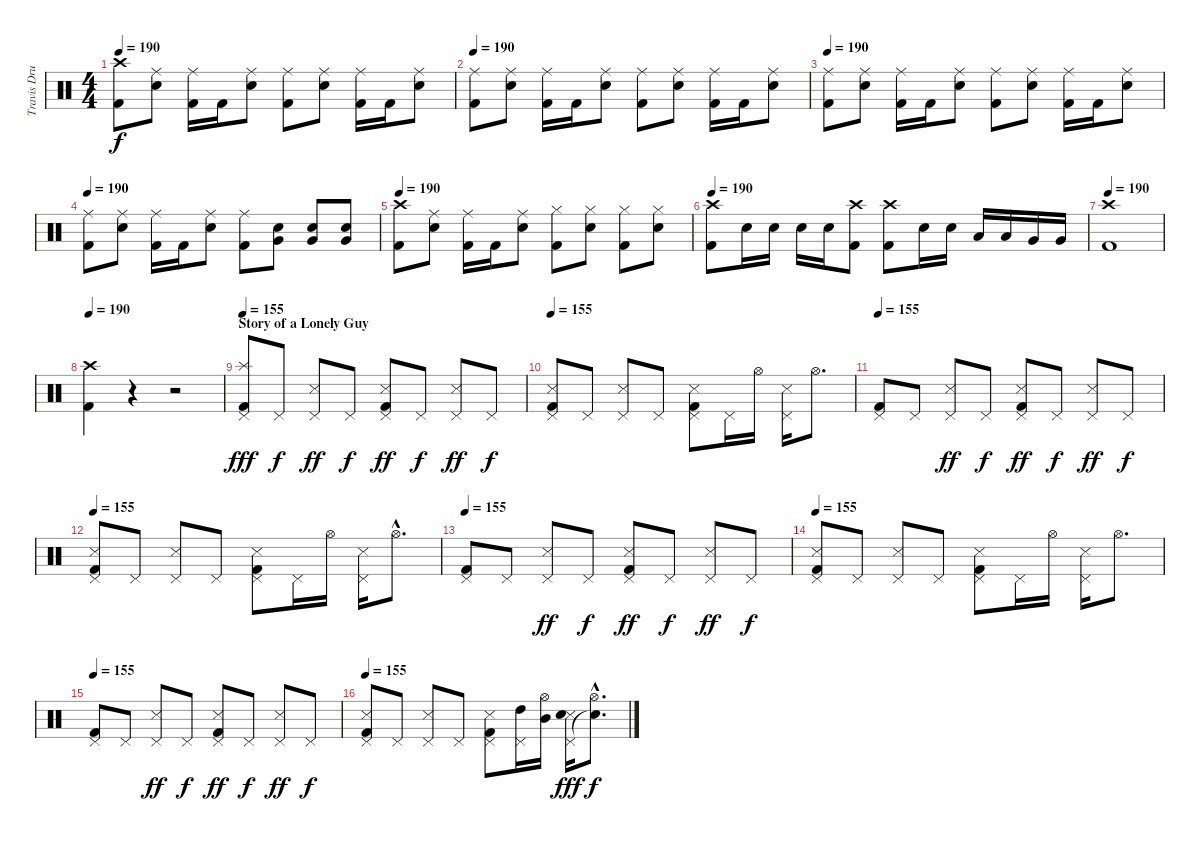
\track ("Travis Drums" "Travis Dru") {instrument percussion}
\staff {score}
\articulation defaults
\ts (4 4)
\tempo 190
\clef neutral
\ks c
("Crash high (hit)" "Kick (hit) 2").8{dy f} ("Ride (middle)" "Electric Snare (hit)").8 ("Ride (middle)" "Kick (hit) 2").16 "Kick (hit) 2".16 ("Ride (middle)" "Electric Snare (hit)").8 ("Ride (middle)" "Kick (hit) 2").8 ("Ride (middle)" "Electric Snare (hit)").8 ("Ride (middle)" "Kick (hit) 2").16 "Kick (hit) 2".16 ("Ride (middle)" "Electric Snare (hit)").8 |
\tempo 190
("Ride (middle)" "Kick (hit) 2").8 ("Ride (middle)" "Electric Snare (hit)").8 ("Ride (middle)" "Kick (hit) 2").16 "Kick (hit) 2".16 ("Ride (middle)" "Electric Snare (hit)").8 ("Ride (middle)" "Kick (hit) 2").8 ("Ride (middle)" "Electric Snare (hit)").8 ("Ride (middle)" "Kick (hit) 2").16 "Kick (hit) 2".16 ("Ride (middle)" "Electric Snare (hit)").8 |
\tempo 190
("Ride (middle)" "Kick (hit) 2").8 ("Ride (middle)" "Electric Snare (hit)").8 ("Ride (middle)" "Kick (hit) 2").16 "Kick (hit) 2".16 ("Ride (middle)" "Electric Snare (hit)").8 ("Ride (middle)" "Kick (hit) 2").8 ("Ride (middle)" "Electric Snare (hit)").8 ("Ride (middle)" "Kick (hit) 2").16 "Kick (hit) 2".16 ("Ride (middle)" "Electric Snare (hit)").8 |
\tempo 190
("Ride (middle)" "Kick (hit) 2").8 ("Ride (middle)" "Electric Snare (hit)").8 ("Ride (middle)" "Kick (hit) 2").16 "Kick (hit) 2".16 ("Ride (middle)" "Electric Snare (hit)").8 ("Ride (middle)" "Kick (hit) 2").8 ("Very Low Tom (hit)" "Electric Snare (hit)").8 ("Very Low Tom (hit)" "Electric Snare (hit)").8 ("Very Low Tom (hit)" "Electric Snare (hit)").8 |
\tempo 190
("Crash high (hit)" "Kick (hit) 2").8 ("Ride (middle)" "Electric Snare (hit)").8 ("Ride (middle)" "Kick (hit) 2").16 "Kick (hit) 2".16 ("Ride (middle)" "Electric Snare (hit)").8 ("Hi-Hat (closed)" "Kick (hit) 2").8 ("Hi-Hat (closed)" "Electric Snare (hit)").8 ("Hi-Hat (closed)" "Kick (hit) 2").8 ("Hi-Hat (closed)" "Electric Snare (hit)").8 |
\tempo 190
("Crash high (hit)" "Kick (hit) 2").8 "Electric Snare (hit)".16 "Electric Snare (hit)".16 "Electric Snare (hit)".16 "Electric Snare (hit)".16 ("Crash high (hit)" "Kick (hit) 2").8 ("Crash high (hit)" "Kick (hit) 2").8 "Electric Snare (hit)".16 "Electric Snare (hit)".16 "Low Tom (hit)".16 "Low Tom (hit)".16 "Very Low Tom (hit)".16 "Very Low Tom (hit)".16 |
\tempo 190
("Crash high (hit)" "Kick (hit) 2").1 |
\tempo 190
("Crash high (hit)" "Kick (hit) 2").4 r.4 r.2 |
\section ("" "Story of a Lonely Guy")
\tempo 155
("Splash (hit)" "Pedal Hi-Hat (hit)" "Kick (hit) 2").8{dy fff} "Pedal Hi-Hat (hit)".8{dy f} ("Metronome (hit)" "Pedal Hi-Hat (hit)").8{dy ff} "Pedal Hi-Hat (hit)".8{dy f} ("Metronome (hit)" "Pedal Hi-Hat (hit)" "Kick (hit) 2").8{dy ff} "Pedal Hi-Hat (hit)".8{dy f} ("Metronome (hit)" "Pedal Hi-Hat (hit)").8{dy ff} "Pedal Hi-Hat (hit)".8{dy f} |
\tempo 155
("Metronome (hit)" "Pedal Hi-Hat (hit)" "Kick (hit) 2").8 "Pedal Hi-Hat (hit)".8 ("Metronome (hit)" "Pedal Hi-Hat (hit)").8 "Pedal Hi-Hat (hit)".8 ("Metronome (hit)" "Pedal Hi-Hat (hit)" "Kick (hit) 2").8 "Pedal Hi-Hat (hit)".16 "Hi-Hat (open)".16 ("Metronome (hit)" "Pedal Hi-Hat (hit)").16 "Hi-Hat (open)".8{d} |
\tempo 155
("Pedal Hi-Hat (hit)" "Kick (hit) 2").8 "Pedal Hi-Hat (hit)".8 ("Metronome (hit)" "Pedal Hi-Hat (hit)").8{dy ff} "Pedal Hi-Hat (hit)".8{dy f} ("Metronome (hit)" "Pedal Hi-Hat (hit)" "Kick (hit) 2").8{dy ff} "Pedal Hi-Hat (hit)".8{dy f} ("Metronome (hit)" "Pedal Hi-Hat (hit)").8{dy ff} "Pedal Hi-Hat (hit)".8{dy f} |
\tempo 155
("Metronome (hit)" "Pedal Hi-Hat (hit)" "Kick (hit) 2").8 "Pedal Hi-Hat (hit)".8 ("Metronome (hit)" "Pedal Hi-Hat (hit)").8 "Pedal Hi-Hat (hit)".8 ("Metronome (hit)" "Pedal Hi-Hat (hit)" "Kick (hit) 2").8 "Pedal Hi-Hat (hit)".16 "Hi-Hat (open)".16 ("Metronome (hit)" "Pedal Hi-Hat (hit)").16 "Hi-Hat (open)"{hac}.8{d} |
\tempo 155
("Pedal Hi-Hat (hit)" "Kick (hit) 2").8 "Pedal Hi-Hat (hit)".8 ("Metronome (hit)" "Pedal Hi-Hat (hit)").8{dy ff} "Pedal Hi-Hat (hit)".8{dy f} ("Metronome (hit)" "Pedal Hi-Hat (hit)" "Kick (hit) 2").8{dy ff} "Pedal Hi-Hat (hit)".8{dy f} ("Metronome (hit)" "Pedal Hi-Hat (hit)").8{dy ff} "Pedal Hi-Hat (hit)".8{dy f} |
\tempo 155
("Metronome (hit)" "Pedal Hi-Hat (hit)" "Kick (hit) 2").8 "Pedal Hi-Hat (hit)".8 ("Metronome (hit)" "Pedal Hi-Hat (hit)").8 "Pedal Hi-Hat (hit)".8 ("Metronome (hit)" "Pedal Hi-Hat (hit)" "Kick (hit) 2").8 "Pedal Hi-Hat (hit)".16 "Hi-Hat (open)".16 ("Metronome (hit)" "Pedal Hi-Hat (hit)").16 "Hi-Hat (open)".8{d} |
\tempo 155
("Pedal Hi-Hat (hit)" "Kick (hit) 2").8 "Pedal Hi-Hat (hit)".8 ("Metronome (hit)" "Pedal Hi-Hat (hit)").8{dy ff} "Pedal Hi-Hat (hit)".8{dy f} ("Metronome (hit)" "Pedal Hi-Hat (hit)" "Kick (hit) 2").8{dy ff} "Pedal Hi-Hat (hit)".8{dy f} ("Metronome (hit)" "Pedal Hi-Hat (hit)").8{dy ff} "Pedal Hi-Hat (hit)".8{dy f} |
\tempo 155
("Metronome (hit)" "Pedal Hi-Hat (hit)" "Kick (hit) 2").8 "Pedal Hi-Hat (hit)".8 ("Metronome (hit)" "Pedal Hi-Hat (hit)").8 "Pedal Hi-Hat (hit)".8 ("Metronome (hit)" "Pedal Hi-Hat (hit)" "Kick (hit) 2").8 ("Pedal Hi-Hat (hit)" "High Tom (hit)").16 ("Hi-Hat (open)" "Mid Tom (hit)").16 ("Metronome (hit)" "Pedal Hi-Hat (hit)" "Electric Snare (hit)").16{dy fff} ("Hi-Hat (open)"{hac} "Snare (hit)"{hac t}).8{d dy f}
